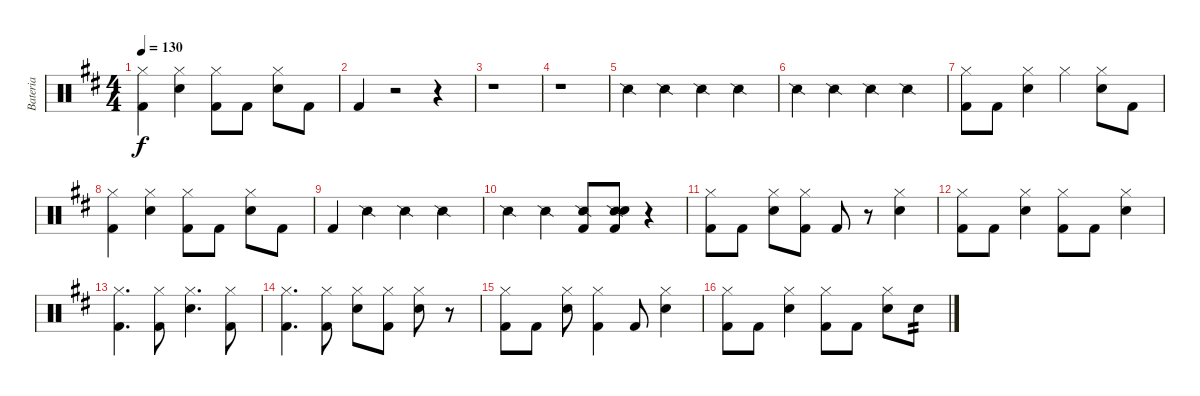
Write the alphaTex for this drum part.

\track ("Bateria" "Bateria") {instrument percussion}
\staff {score}
\articulation defaults
\ts (4 4)
\tempo 130
\clef neutral
\ks d
("Hi-Hat (closed)" "Kick (hit) 2").4{dy f} ("Hi-Hat (closed)" "Electric Snare (hit)").4 ("Hi-Hat (closed)" "Kick (hit) 2").8 "Kick (hit) 2".8 ("Hi-Hat (closed)" "Electric Snare (hit)").8 "Kick (hit) 2".8 |
"Kick (hit) 2".4 r.2 r.4 |
r.1 |
r.1 |
"Snare (side stick) 2".4 "Snare (side stick) 2".4 "Snare (side stick) 2".4 "Snare (side stick) 2".4 |
"Snare (side stick) 2".4 "Snare (side stick) 2".4 "Snare (side stick) 2".4 "Snare (side stick) 2".4 |
("Hi-Hat (closed)" "Kick (hit) 2").8 "Kick (hit) 2".8 ("Hi-Hat (closed)" "Electric Snare (hit)").4 "Hi-Hat (closed)".4 ("Hi-Hat (closed)" "Electric Snare (hit)").8 "Kick (hit) 2".8 |
("Hi-Hat (closed)" "Kick (hit) 2").4 ("Hi-Hat (closed)" "Electric Snare (hit)").4 ("Hi-Hat (closed)" "Kick (hit) 2").8 "Kick (hit) 2".8 ("Hi-Hat (closed)" "Electric Snare (hit)").8 "Kick (hit) 2".8 |
"Kick (hit) 2".4 "Snare (side stick) 2".4 "Snare (side stick) 2".4 "Snare (side stick) 2".4 |
"Snare (side stick) 2".4 "Snare (side stick) 2".4 ("Snare (side stick) 2" "Kick (hit) 2").8 ("Snare (side stick) 2" "Electric Snare (hit)" "Kick (hit) 2").8 r.4 |
("Hi-Hat (closed)" "Kick (hit) 2").8 "Kick (hit) 2".8 ("Hi-Hat (closed)" "Electric Snare (hit)").8 ("Hi-Hat (closed)" "Kick (hit) 2").8 "Kick (hit) 2".8 r.8 ("Hi-Hat (closed)" "Electric Snare (hit)").4 |
("Hi-Hat (closed)" "Kick (hit) 2").8 "Kick (hit) 2".8 ("Hi-Hat (closed)" "Electric Snare (hit)").4 ("Hi-Hat (closed)" "Kick (hit) 2").8 "Kick (hit) 2".8 ("Hi-Hat (closed)" "Electric Snare (hit)").4 |
("Hi-Hat (closed)" "Kick (hit) 2").4{d} ("Hi-Hat (closed)" "Kick (hit) 2").8 ("Hi-Hat (closed)" "Electric Snare (hit)").4{d} ("Hi-Hat (closed)" "Kick (hit) 2").8 |
("Hi-Hat (closed)" "Kick (hit) 2").4{d} ("Hi-Hat (closed)" "Kick (hit) 2").8 ("Hi-Hat (closed)" "Electric Snare (hit)").8 ("Hi-Hat (closed)" "Kick (hit) 2").8 ("Hi-Hat (closed)" "Electric Snare (hit)").8 r.8 |
("Hi-Hat (closed)" "Kick (hit) 2").8 "Kick (hit) 2".8 ("Hi-Hat (closed)" "Electric Snare (hit)").8 ("Hi-Hat (closed)" "Kick (hit) 2").4 "Kick (hit) 2".8 ("Hi-Hat (closed)" "Electric Snare (hit)").4 |
("Hi-Hat (closed)" "Kick (hit) 2").8 "Kick (hit) 2".8 ("Hi-Hat (closed)" "Electric Snare (hit)").4 ("Hi-Hat (closed)" "Kick (hit) 2").8 "Kick (hit) 2".8 ("Hi-Hat (closed)" "Electric Snare (hit)").8 "Electric Snare (hit)".8{tp 2}
